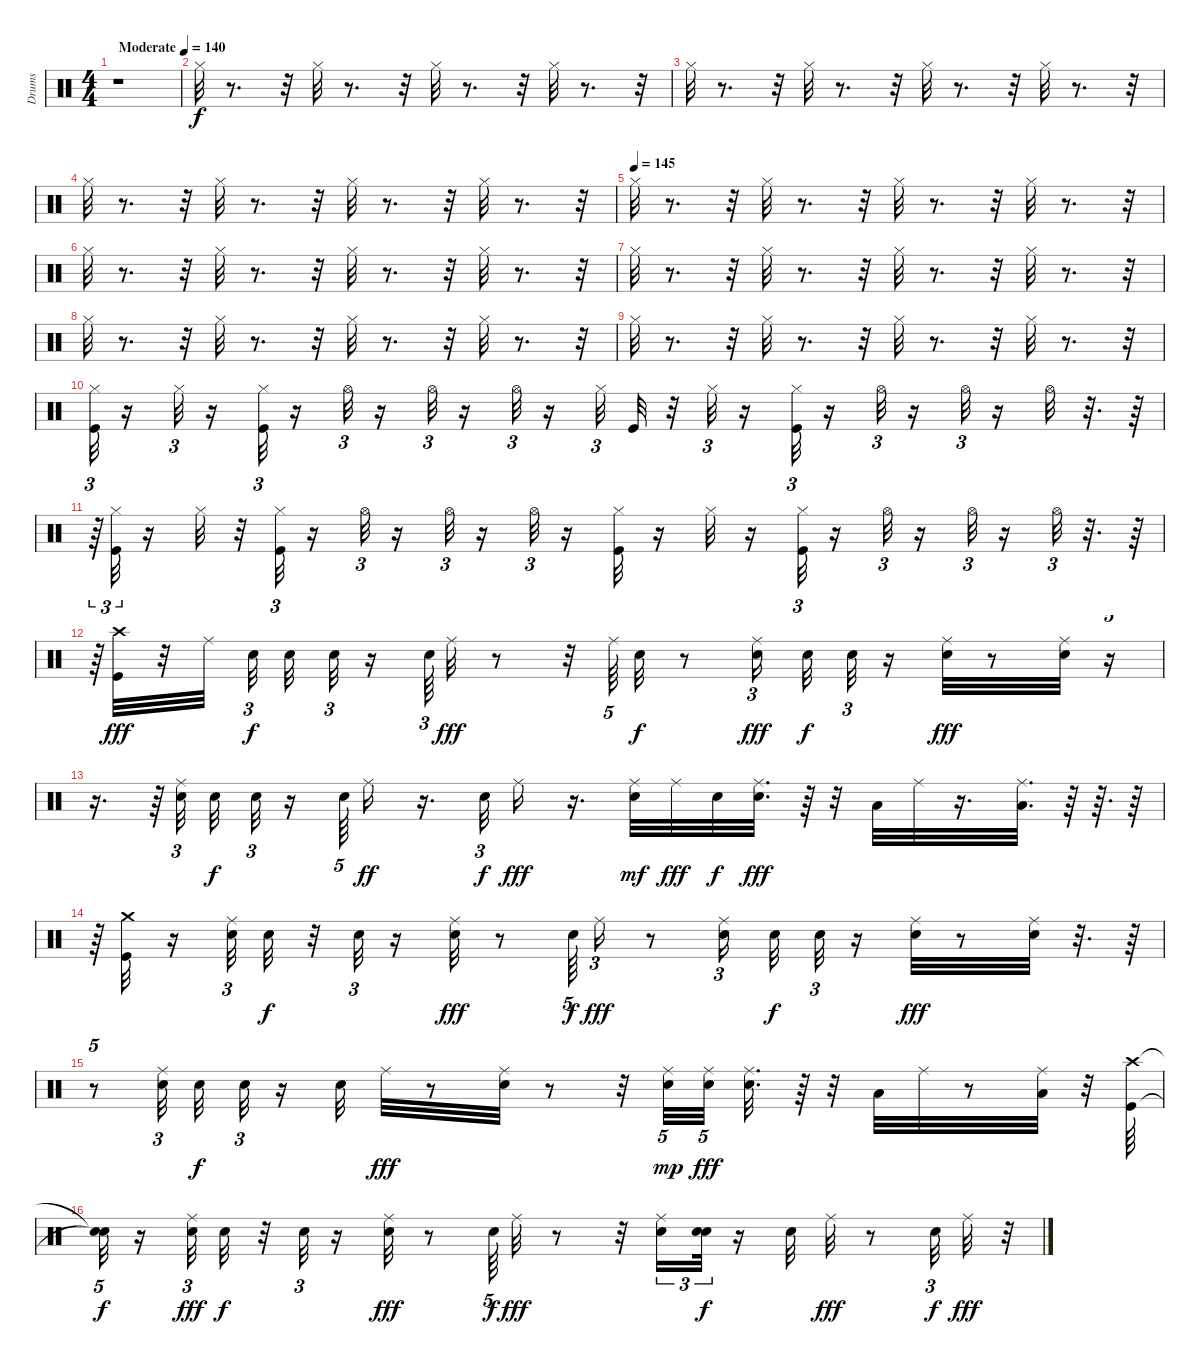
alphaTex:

\track ("Drums" "Drums") {instrument percussion}
\staff {score}
\articulation defaults
\ts (4 4)
\tempo (140 "Moderate")
\clef neutral
\ks c
r.1{dy f} |
"Hi-Hat (closed)".32 r.8{d} r.32 "Hi-Hat (closed)".32 r.8{d} r.32 "Hi-Hat (closed)".32 r.8{d} r.32 "Hi-Hat (closed)".32 r.8{d} r.32 |
"Hi-Hat (closed)".32 r.8{d} r.32 "Hi-Hat (closed)".32 r.8{d} r.32 "Hi-Hat (closed)".32 r.8{d} r.32 "Hi-Hat (closed)".32 r.8{d} r.32 |
"Hi-Hat (closed)".32 r.8{d} r.32 "Hi-Hat (closed)".32 r.8{d} r.32 "Hi-Hat (closed)".32 r.8{d} r.32 "Hi-Hat (closed)".32 r.8{d} r.32 |
\tempo (145)
"Hi-Hat (closed)".32 r.8{d} r.32 "Hi-Hat (closed)".32 r.8{d} r.32 "Hi-Hat (closed)".32 r.8{d} r.32 "Hi-Hat (closed)".32 r.8{d} r.32 |
"Hi-Hat (closed)".32 r.8{d} r.32 "Hi-Hat (closed)".32 r.8{d} r.32 "Hi-Hat (closed)".32 r.8{d} r.32 "Hi-Hat (closed)".32 r.8{d} r.32 |
"Hi-Hat (closed)".32 r.8{d} r.32 "Hi-Hat (closed)".32 r.8{d} r.32 "Hi-Hat (closed)".32 r.8{d} r.32 "Hi-Hat (closed)".32 r.8{d} r.32 |
"Hi-Hat (closed)".32 r.8{d} r.32 "Hi-Hat (closed)".32 r.8{d} r.32 "Hi-Hat (closed)".32 r.8{d} r.32 "Hi-Hat (closed)".32 r.8{d} r.32 |
"Hi-Hat (closed)".32 r.8{d} r.32 "Hi-Hat (closed)".32 r.8{d} r.32 "Hi-Hat (closed)".32 r.8{d} r.32 "Hi-Hat (closed)".32 r.8{d} r.32 |
("Kick (hit)" "Hi-Hat (closed)").32{tu (3 2)} r.16 "Hi-Hat (closed)".32{tu (3 2)} r.16 ("Kick (hit)" "Hi-Hat (closed)").32{tu (3 2)} r.16 "Hi-Hat (open)".32{tu (3 2)} r.16 "Hi-Hat (open)".32{tu (3 2)} r.16 "Hi-Hat (open)".32{tu (3 2)} r.16 "Hi-Hat (closed)".32{tu (3 2)} "Kick (hit)".32 r.32 "Hi-Hat (closed)".32{tu (3 2)} r.16 ("Kick (hit)" "Hi-Hat (closed)").32{tu (3 2)} r.16 "Hi-Hat (open)".32{tu (3 2)} r.16 "Hi-Hat (open)".32{tu (3 2)} r.16 "Hi-Hat (open)".32 r.32{d} r.64 |
r.64{tu (3 2)} ("Kick (hit)" "Hi-Hat (closed)").32{tu (3 2)} r.16 "Hi-Hat (closed)".32 r.32 ("Kick (hit)" "Hi-Hat (closed)").32{tu (3 2)} r.16 "Hi-Hat (open)".32{tu (3 2)} r.16 "Hi-Hat (open)".32{tu (3 2)} r.16 "Hi-Hat (open)".32{tu (3 2)} r.16 ("Hi-Hat (closed)" "Kick (hit)").32 r.16 "Hi-Hat (closed)".32 r.16 ("Kick (hit)" "Hi-Hat (closed)").32{tu (3 2)} r.16 "Hi-Hat (open)".32{tu (3 2)} r.16 "Hi-Hat (open)".32{tu (3 2)} r.16 "Hi-Hat (open)".32{tu (3 2)} r.32{d} r.64 |
r.64{tu (3 2)} ("Kick (hit)" "Crash high (hit)").32{dy fff} r.32 "Ride (middle)".32{beam splitsecondary} "Electric Snare (hit)".32{tu (3 2) dy f beam splitsecondary} "Electric Snare (hit)".32 "Electric Snare (hit)".32{tu (3 2)} r.16 "Electric Snare (hit)".64{tu (3 2)} "Ride (middle)".32{dy fff} r.8 r.32 "Ride (middle)".64{tu (5 4)} "Electric Snare (hit)".32{dy f} r.8 ("Ride (middle)" "Electric Snare (hit)").16{tu (3 2) dy fff beam splitsecondary} "Electric Snare (hit)".32{dy f} "Electric Snare (hit)".32{tu (3 2)} r.16 ("Electric Snare (hit)" "Ride (middle)").32{dy fff} r.8 ("Electric Snare (hit)" "Ride (middle)").32 r.16{tu (5 4)} |
r.16{d} r.64{tu (5 4)} ("Ride (middle)" "Electric Snare (hit)").32{tu (3 2) beam splitsecondary} "Electric Snare (hit)".32{dy f} "Electric Snare (hit)".32{tu (3 2)} r.16 "Electric Snare (hit)".64{tu (5 4)} "Ride (middle)".16{dy ff} r.16{d} "Electric Snare (hit)".32{tu (3 2) dy f} "Ride (middle)".16{dy fff} r.16{d} ("Electric Snare (hit)" "Ride (middle)").32{dy mf} "Ride (middle)".32{dy fff} "Electric Snare (hit)".32{dy f} ("Electric Snare (hit)" "Ride (middle)").32{d dy fff} r.64 r.32 "Low Tom (hit)".32 "Ride (middle)".32 r.16{d} ("Low Tom (hit)" "Ride (middle)").32{d} r.64 r.64{d} r.64 |
r.64 ("Kick (hit)" "Crash medium (hit)").32 r.16 ("Ride (middle)" "Electric Snare (hit)").32{tu (3 2)} "Electric Snare (hit)".32{dy f} r.32 "Electric Snare (hit)".32{tu (3 2)} r.16 ("Electric Snare (hit)" "Ride (middle)").32{dy fff} r.8 "Electric Snare (hit)".64{tu (5 4) dy f} "Ride (middle)".16{tu (3 2) dy fff} r.8 ("Ride (middle)" "Electric Snare (hit)").16{tu (3 2) beam splitsecondary} "Electric Snare (hit)".32{dy f} "Electric Snare (hit)".32{tu (3 2)} r.16 ("Electric Snare (hit)" "Ride (middle)").32{dy fff} r.8 ("Electric Snare (hit)" "Ride (middle)").32 r.32{d} r.64 |
r.8{tu (5 4)} ("Ride (middle)" "Electric Snare (hit)").32{tu (3 2) beam splitsecondary} "Electric Snare (hit)".32{dy f} "Electric Snare (hit)".32{tu (3 2)} r.16 "Electric Snare (hit)".32 "Ride (middle)".32{dy fff} r.8 ("Electric Snare (hit)" "Ride (middle)").32 r.8 r.32 ("Electric Snare (hit)" "Ride (middle)").32{tu (5 4) dy mp} ("Ride (middle)" "Electric Snare (hit)").32{tu (5 4) dy fff beam splitsecondary} ("Ride (middle)" "Electric Snare (hit)").32{d} r.64 r.32 "Low Tom (hit)".32 "Ride (middle)".32 r.8 ("Low Tom (hit)" "Ride (middle)").32 r.32 ("Kick (hit)" "Crash high (hit)").64 |
("Snare (hit)"{t} "Snare (hit)"{t}).32{tu (5 4) dy f} r.16 ("Electric Snare (hit)" "Ride (middle)").32{tu (3 2) dy fff} "Electric Snare (hit)".32{dy f} r.32 "Electric Snare (hit)".32{tu (3 2)} r.16 ("Electric Snare (hit)" "Ride (middle)").32{dy fff} r.8 "Electric Snare (hit)".64{tu (5 4) dy f} "Ride (middle)".32{dy fff} r.8 r.32 ("Electric Snare (hit)" "Ride (middle)").16{tu (3 2)} ("Electric Snare (hit)" "Electric Snare (hit)").32{tu (3 2) dy f} r.16 "Electric Snare (hit)".32 "Ride (middle)".32{dy fff} r.8 "Electric Snare (hit)".32{tu (3 2) dy f} "Ride (middle)".32{dy fff} r.32{tu (5 4)}
